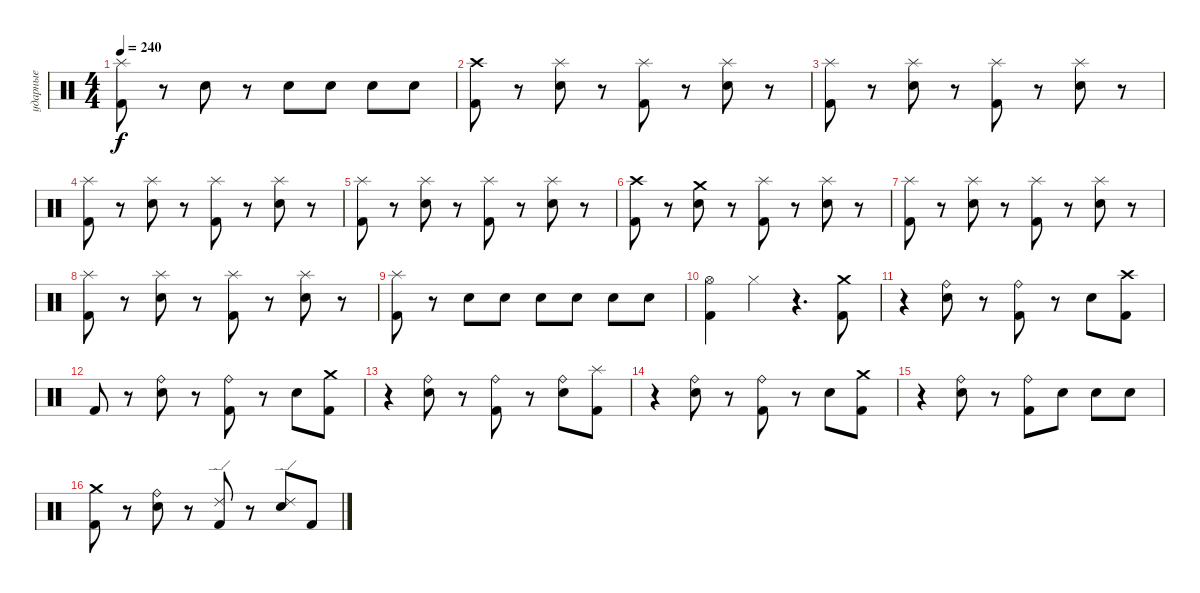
\track ("ударные" "ударные") {instrument percussion}
\staff {score}
\articulation defaults
\ts (4 4)
\tempo 240
\clef neutral
\ks c
("Splash (hit)" "Kick (hit) 2").8{dy f} r.8 "Electric Snare (hit)".8 r.8 "Electric Snare (hit)".8 "Electric Snare (hit)".8 "Electric Snare (hit)".8 "Electric Snare (hit)".8 |
("Crash high (hit)" "Kick (hit) 2").8 r.8 ("Splash (hit)" "Electric Snare (hit)").8 r.8 ("Splash (hit)" "Kick (hit) 2").8 r.8 ("Splash (hit)" "Electric Snare (hit)").8 r.8 |
("Splash (hit)" "Kick (hit) 2").8 r.8 ("Splash (hit)" "Electric Snare (hit)").8 r.8 ("Splash (hit)" "Kick (hit) 2").8 r.8 ("Splash (hit)" "Electric Snare (hit)").8 r.8 |
("Splash (hit)" "Kick (hit) 2").8 r.8 ("Splash (hit)" "Electric Snare (hit)").8 r.8 ("Splash (hit)" "Kick (hit) 2").8 r.8 ("Splash (hit)" "Electric Snare (hit)").8 r.8 |
("Splash (hit)" "Kick (hit) 2").8 r.8 ("Splash (hit)" "Electric Snare (hit)").8 r.8 ("Splash (hit)" "Kick (hit) 2").8 r.8 ("Splash (hit)" "Electric Snare (hit)").8 r.8 |
("Kick (hit) 2" "Crash high (hit)").8 r.8 ("Electric Snare (hit)" "Crash medium (hit)").8 r.8 ("Splash (hit)" "Kick (hit) 2").8 r.8 ("Splash (hit)" "Electric Snare (hit)").8 r.8 |
("Splash (hit)" "Kick (hit) 2").8 r.8 ("Splash (hit)" "Electric Snare (hit)").8 r.8 ("Splash (hit)" "Kick (hit) 2").8 r.8 ("Splash (hit)" "Electric Snare (hit)").8 r.8 |
("Splash (hit)" "Kick (hit) 2").8 r.8 ("Splash (hit)" "Electric Snare (hit)").8 r.8 ("Splash (hit)" "Kick (hit) 2").8 r.8 ("Splash (hit)" "Electric Snare (hit)").8 r.8 |
("Splash (hit)" "Kick (hit) 2").8 r.8 "Electric Snare (hit)".8 "Electric Snare (hit)".8 "Electric Snare (hit)".8 "Electric Snare (hit)".8 "Electric Snare (hit)".8 "Electric Snare (hit)".8 |
("Hi-Hat (open)" "Kick (hit) 2").4 "Hi-Hat (closed)".4 r.4{d} ("Crash medium (hit)" "Kick (hit) 2").8 |
r.4 ("Ride (bell)" "Electric Snare (hit)").8 r.8 ("Ride (bell)" "Kick (hit) 2").8 r.8 "Electric Snare (hit)".8 ("Crash high (hit)" "Kick (hit) 2").8 |
"Kick (hit) 2".8 r.8 ("Ride (bell)" "Electric Snare (hit)").8 r.8 ("Ride (bell)" "Kick (hit) 2").8 r.8 "Electric Snare (hit)".8 ("Crash medium (hit)" "Kick (hit) 2").8 |
r.4 ("Ride (bell)" "Electric Snare (hit)").8 r.8 ("Ride (bell)" "Kick (hit) 2").8 r.8 ("Ride (bell)" "Electric Snare (hit)").8 ("Splash (hit)" "Kick (hit) 2").8 |
r.4 ("Ride (bell)" "Electric Snare (hit)").8 r.8 ("Ride (bell)" "Kick (hit) 2").8 r.8 "Electric Snare (hit)".8 ("Crash medium (hit)" "Kick (hit) 2").8 |
r.4 ("Ride (bell)" "Electric Snare (hit)").8 r.8 ("Ride (bell)" "Kick (hit) 2").8 "Snare (hit) 2".8 "Snare (hit) 2".8 "Snare (hit) 2".8 |
("Crash medium (hit)" "Kick (hit) 2").8 r.8 ("Ride (bell)" "Electric Snare (hit)").8 r.8 ("Ride (edge) 2" "Kick (hit) 2").8 r.8 ("Ride (edge) 2" "Electric Snare (hit)").8 "Kick (hit) 2".8
